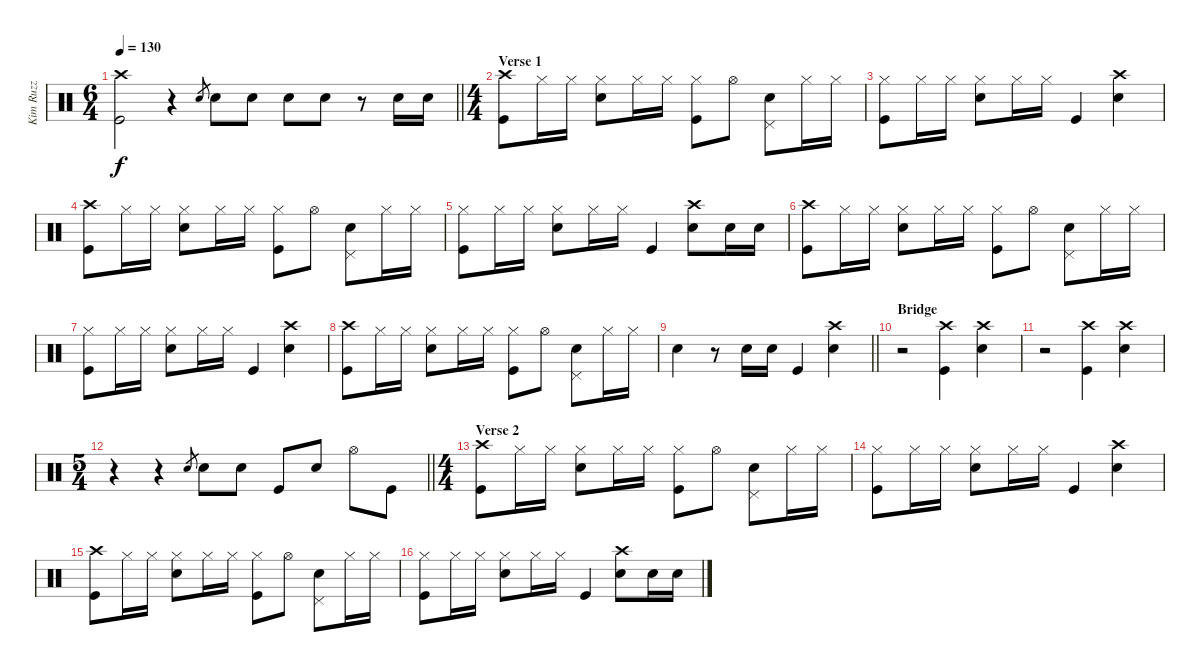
\track ("Kim Ruzz" "Kim Ruzz") {instrument percussion}
\staff {score}
\articulation defaults
\ts (6 4)
\tempo 130
\clef neutral
\barLineRight lightlight
\ks c
("Crash high (hit)" "Kick (hit)").2{dy f} r.4 "Snare (hit) 2".8{gr} "Snare (hit) 2".8 "Snare (hit) 2".8 "Snare (hit) 2".8 "Snare (hit) 2".8 r.8 "Snare (hit) 2".16 "Snare (hit) 2".16 |
\ts (4 4)
\section ("" "Verse 1")
("Crash high (hit)" "Kick (hit)").8 "Hi-Hat (closed)".16 "Hi-Hat (closed)".16 ("Hi-Hat (closed)" "Snare (hit) 2").8 "Hi-Hat (closed)".16 "Hi-Hat (closed)".16 ("Hi-Hat (closed)" "Kick (hit)").8 "Hi-Hat (open)".8 ("Pedal Hi-Hat (hit)" "Snare (hit) 2").8 "Hi-Hat (closed)".16 "Hi-Hat (closed)".16 |
("Hi-Hat (closed)" "Kick (hit)").8 "Hi-Hat (closed)".16 "Hi-Hat (closed)".16 ("Hi-Hat (closed)" "Snare (hit) 2").8 "Hi-Hat (closed)".16 "Hi-Hat (closed)".16 "Kick (hit)".4 ("Crash high (hit)" "Snare (hit) 2").4 |
("Crash high (hit)" "Kick (hit)").8 "Hi-Hat (closed)".16 "Hi-Hat (closed)".16 ("Hi-Hat (closed)" "Snare (hit) 2").8 "Hi-Hat (closed)".16 "Hi-Hat (closed)".16 ("Hi-Hat (closed)" "Kick (hit)").8 "Hi-Hat (open)".8 ("Pedal Hi-Hat (hit)" "Snare (hit) 2").8 "Hi-Hat (closed)".16 "Hi-Hat (closed)".16 |
("Hi-Hat (closed)" "Kick (hit)").8 "Hi-Hat (closed)".16 "Hi-Hat (closed)".16 ("Hi-Hat (closed)" "Snare (hit) 2").8 "Hi-Hat (closed)".16 "Hi-Hat (closed)".16 "Kick (hit)".4 ("Crash high (hit)" "Snare (hit) 2").8 "Snare (hit) 2".16 "Snare (hit) 2".16 |
("Crash high (hit)" "Kick (hit)").8 "Hi-Hat (closed)".16 "Hi-Hat (closed)".16 ("Hi-Hat (closed)" "Snare (hit) 2").8 "Hi-Hat (closed)".16 "Hi-Hat (closed)".16 ("Hi-Hat (closed)" "Kick (hit)").8 "Hi-Hat (open)".8 ("Pedal Hi-Hat (hit)" "Snare (hit) 2").8 "Hi-Hat (closed)".16 "Hi-Hat (closed)".16 |
("Hi-Hat (closed)" "Kick (hit)").8 "Hi-Hat (closed)".16 "Hi-Hat (closed)".16 ("Hi-Hat (closed)" "Snare (hit) 2").8 "Hi-Hat (closed)".16 "Hi-Hat (closed)".16 "Kick (hit)".4 ("Crash high (hit)" "Snare (hit) 2").4 |
("Crash high (hit)" "Kick (hit)").8 "Hi-Hat (closed)".16 "Hi-Hat (closed)".16 ("Hi-Hat (closed)" "Snare (hit) 2").8 "Hi-Hat (closed)".16 "Hi-Hat (closed)".16 ("Hi-Hat (closed)" "Kick (hit)").8 "Hi-Hat (open)".8 ("Pedal Hi-Hat (hit)" "Snare (hit) 2").8 "Hi-Hat (closed)".16 "Hi-Hat (closed)".16 |
\barLineRight lightlight "Snare (hit) 2".4
r.8 "Snare (hit) 2".16 "Snare (hit) 2".16 "Kick (hit)".4 ("Crash high (hit)" "Snare (hit) 2").4 |
\section ("" "Bridge")
r.2 ("Crash high (hit)" "Kick (hit)").4 ("Crash high (hit)" "Snare (hit) 2").4 |
r.2 ("Crash high (hit)" "Kick (hit)").4 ("Crash high (hit)" "Snare (hit) 2").4 |
\ts (5 4)
\barLineRight lightlight
r.4 r.4 "Snare (hit) 2".8{gr} "Snare (hit) 2".8 "Snare (hit) 2".8 "Kick (hit)".8 "Snare (hit) 2".8 "Hi-Hat (open)".8 "Kick (hit)".8 |
\ts (4 4)
\section ("" "Verse 2")
("Crash high (hit)" "Kick (hit)").8 "Hi-Hat (closed)".16 "Hi-Hat (closed)".16 ("Hi-Hat (closed)" "Snare (hit) 2").8 "Hi-Hat (closed)".16 "Hi-Hat (closed)".16 ("Hi-Hat (closed)" "Kick (hit)").8 "Hi-Hat (open)".8 ("Pedal Hi-Hat (hit)" "Snare (hit) 2").8 "Hi-Hat (closed)".16 "Hi-Hat (closed)".16 |
("Hi-Hat (closed)" "Kick (hit)").8 "Hi-Hat (closed)".16 "Hi-Hat (closed)".16 ("Hi-Hat (closed)" "Snare (hit) 2").8 "Hi-Hat (closed)".16 "Hi-Hat (closed)".16 "Kick (hit)".4 ("Crash high (hit)" "Snare (hit) 2").4 |
("Crash high (hit)" "Kick (hit)").8 "Hi-Hat (closed)".16 "Hi-Hat (closed)".16 ("Hi-Hat (closed)" "Snare (hit) 2").8 "Hi-Hat (closed)".16 "Hi-Hat (closed)".16 ("Hi-Hat (closed)" "Kick (hit)").8 "Hi-Hat (open)".8 ("Pedal Hi-Hat (hit)" "Snare (hit) 2").8 "Hi-Hat (closed)".16 "Hi-Hat (closed)".16 |
("Hi-Hat (closed)" "Kick (hit)").8 "Hi-Hat (closed)".16 "Hi-Hat (closed)".16 ("Hi-Hat (closed)" "Snare (hit) 2").8 "Hi-Hat (closed)".16 "Hi-Hat (closed)".16 "Kick (hit)".4 ("Crash high (hit)" "Snare (hit) 2").8 "Snare (hit) 2".16 "Snare (hit) 2".16
